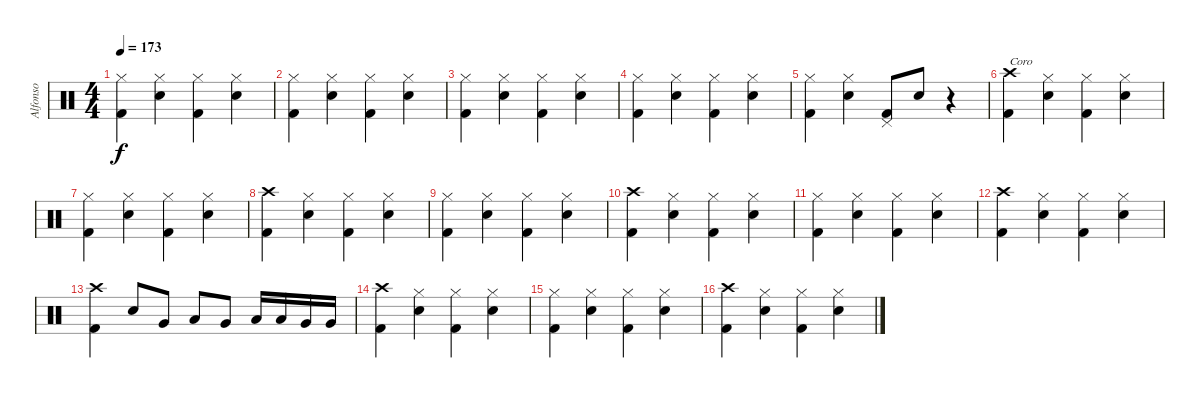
\track ("Alfonso" "Alfonso") {instrument percussion}
\staff {score}
\articulation defaults
\ts (4 4)
\tempo 173
\clef neutral
\ks c
("Kick (hit) 2" "Hi-Hat (closed)").4{dy f} ("Electric Snare (hit)" "Hi-Hat (closed)").4 ("Kick (hit) 2" "Hi-Hat (closed)").4 ("Electric Snare (hit)" "Hi-Hat (closed)").4 |
("Kick (hit) 2" "Hi-Hat (closed)").4 ("Electric Snare (hit)" "Hi-Hat (closed)").4 ("Kick (hit) 2" "Hi-Hat (closed)").4 ("Electric Snare (hit)" "Hi-Hat (closed)").4 |
("Kick (hit) 2" "Hi-Hat (closed)").4 ("Electric Snare (hit)" "Hi-Hat (closed)").4 ("Kick (hit) 2" "Hi-Hat (closed)").4 ("Electric Snare (hit)" "Hi-Hat (closed)").4 |
("Kick (hit) 2" "Hi-Hat (closed)").4 ("Electric Snare (hit)" "Hi-Hat (closed)").4 ("Kick (hit) 2" "Hi-Hat (closed)").4 ("Electric Snare (hit)" "Hi-Hat (closed)").4 |
("Kick (hit) 2" "Hi-Hat (closed)").4 ("Electric Snare (hit)" "Hi-Hat (closed)").4 ("Kick (hit) 2" "Pedal Hi-Hat (hit)").8 "Electric Snare (hit)".8 r.4 |
("Kick (hit) 2" "Crash high (hit)").4{txt "Coro"} ("Electric Snare (hit)" "Hi-Hat (closed)").4 ("Kick (hit) 2" "Hi-Hat (closed)").4 ("Electric Snare (hit)" "Hi-Hat (closed)").4 |
("Kick (hit) 2" "Hi-Hat (closed)").4 ("Electric Snare (hit)" "Hi-Hat (closed)").4 ("Kick (hit) 2" "Hi-Hat (closed)").4 ("Electric Snare (hit)" "Hi-Hat (closed)").4 |
("Kick (hit) 2" "Crash high (hit)").4 ("Electric Snare (hit)" "Hi-Hat (closed)").4 ("Kick (hit) 2" "Hi-Hat (closed)").4 ("Electric Snare (hit)" "Hi-Hat (closed)").4 |
("Kick (hit) 2" "Hi-Hat (closed)").4 ("Electric Snare (hit)" "Hi-Hat (closed)").4 ("Kick (hit) 2" "Hi-Hat (closed)").4 ("Electric Snare (hit)" "Hi-Hat (closed)").4 |
("Kick (hit) 2" "Crash high (hit)").4 ("Electric Snare (hit)" "Hi-Hat (closed)").4 ("Kick (hit) 2" "Hi-Hat (closed)").4 ("Electric Snare (hit)" "Hi-Hat (closed)").4 |
("Kick (hit) 2" "Hi-Hat (closed)").4 ("Electric Snare (hit)" "Hi-Hat (closed)").4 ("Kick (hit) 2" "Hi-Hat (closed)").4 ("Electric Snare (hit)" "Hi-Hat (closed)").4 |
("Kick (hit) 2" "Crash high (hit)").4 ("Electric Snare (hit)" "Hi-Hat (closed)").4 ("Kick (hit) 2" "Hi-Hat (closed)").4 ("Electric Snare (hit)" "Hi-Hat (closed)").4 |
("Crash high (hit)" "Kick (hit) 2").4 "Electric Snare (hit)".8 "Very Low Tom (hit)".8 "Low Floor Tom (hit)".8 "Very Low Tom (hit)".8 "Low Tom (hit)".16 "Low Tom (hit)".16 "Very Low Tom (hit)".16 "Very Low Tom (hit)".16 |
("Kick (hit) 2" "Crash high (hit)").4 ("Electric Snare (hit)" "Hi-Hat (closed)").4 ("Kick (hit) 2" "Hi-Hat (closed)").4 ("Electric Snare (hit)" "Hi-Hat (closed)").4 |
("Kick (hit) 2" "Hi-Hat (closed)").4 ("Electric Snare (hit)" "Hi-Hat (closed)").4 ("Kick (hit) 2" "Hi-Hat (closed)").4 ("Electric Snare (hit)" "Hi-Hat (closed)").4 |
("Kick (hit) 2" "Crash high (hit)").4 ("Electric Snare (hit)" "Hi-Hat (closed)").4 ("Kick (hit) 2" "Hi-Hat (closed)").4 ("Electric Snare (hit)" "Hi-Hat (closed)").4
